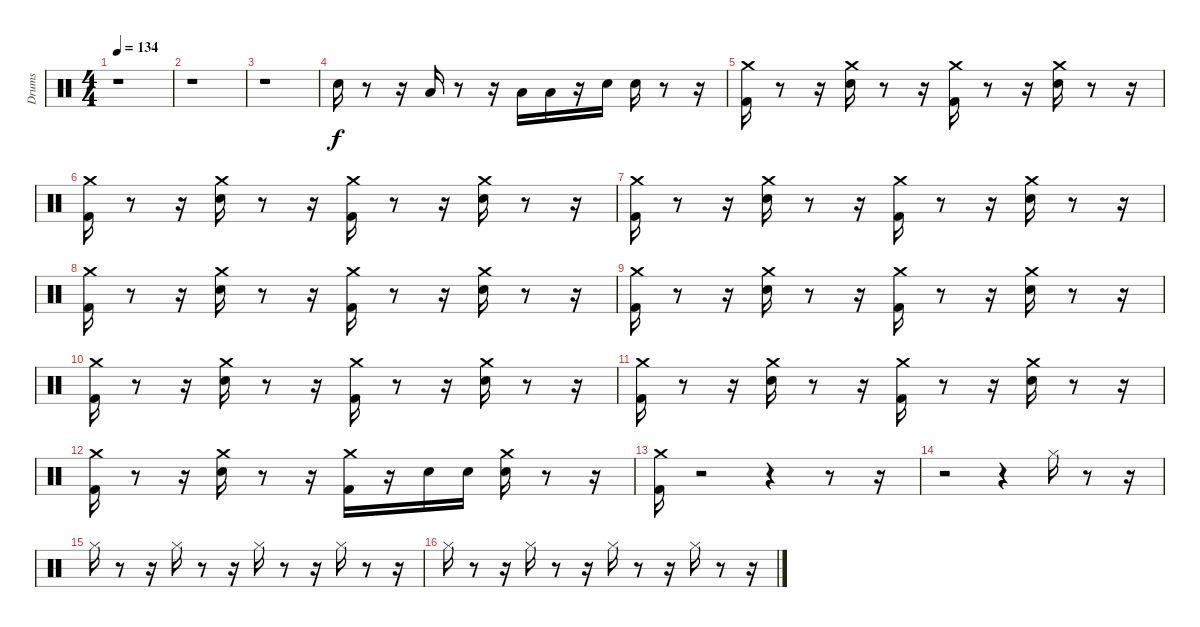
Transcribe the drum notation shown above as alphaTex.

\track ("Drums               " "Drums     ") {instrument percussion}
\staff {score}
\articulation defaults
\ts (4 4)
\tempo 134
\clef neutral
\ks c
r.1{dy f} |
r.1 |
r.1 |
"Snare (hit) 2".16 r.8 r.16 "Low Floor Tom (hit)".16 r.8 r.16 "Low Tom (hit)".16 "Low Tom (hit)".16 r.16 "Snare (hit) 2".16 "Snare (hit) 2".16 r.8 r.16 |
("Kick (hit) 2" "Crash medium (hit)").16 r.8 r.16 ("Snare (hit) 2" "Crash medium (hit)").16 r.8 r.16 ("Kick (hit) 2" "Crash medium (hit)").16 r.8 r.16 ("Snare (hit) 2" "Crash medium (hit)").16 r.8 r.16 |
("Kick (hit) 2" "Crash medium (hit)").16 r.8 r.16 ("Snare (hit) 2" "Crash medium (hit)").16 r.8 r.16 ("Kick (hit) 2" "Crash medium (hit)").16 r.8 r.16 ("Snare (hit) 2" "Crash medium (hit)").16 r.8 r.16 |
("Kick (hit) 2" "Crash medium (hit)").16 r.8 r.16 ("Snare (hit) 2" "Crash medium (hit)").16 r.8 r.16 ("Kick (hit) 2" "Crash medium (hit)").16 r.8 r.16 ("Snare (hit) 2" "Crash medium (hit)").16 r.8 r.16 |
("Kick (hit) 2" "Crash medium (hit)").16 r.8 r.16 ("Snare (hit) 2" "Crash medium (hit)").16 r.8 r.16 ("Kick (hit) 2" "Crash medium (hit)").16 r.8 r.16 ("Snare (hit) 2" "Crash medium (hit)").16 r.8 r.16 |
("Kick (hit) 2" "Crash medium (hit)").16 r.8 r.16 ("Snare (hit) 2" "Crash medium (hit)").16 r.8 r.16 ("Kick (hit) 2" "Crash medium (hit)").16 r.8 r.16 ("Snare (hit) 2" "Crash medium (hit)").16 r.8 r.16 |
("Kick (hit) 2" "Crash medium (hit)").16 r.8 r.16 ("Snare (hit) 2" "Crash medium (hit)").16 r.8 r.16 ("Kick (hit) 2" "Crash medium (hit)").16 r.8 r.16 ("Snare (hit) 2" "Crash medium (hit)").16 r.8 r.16 |
("Kick (hit) 2" "Crash medium (hit)").16 r.8 r.16 ("Snare (hit) 2" "Crash medium (hit)").16 r.8 r.16 ("Kick (hit) 2" "Crash medium (hit)").16 r.8 r.16 ("Snare (hit) 2" "Crash medium (hit)").16 r.8 r.16 |
("Kick (hit) 2" "Crash medium (hit)").16 r.8 r.16 ("Snare (hit) 2" "Crash medium (hit)").16 r.8 r.16 ("Kick (hit) 2" "Crash medium (hit)").16 r.16 "Electric Snare (hit)".16 "Electric Snare (hit)".16 ("Electric Snare (hit)" "Crash medium (hit)").16 r.8 r.16 |
("Kick (hit) 2" "Crash medium (hit)").16 r.2 r.4 r.8 r.16 |
r.2 r.4 "Hi-Hat (closed)".16 r.8 r.16 |
"Hi-Hat (closed)".16 r.8 r.16 "Hi-Hat (closed)".16 r.8 r.16 "Hi-Hat (closed)".16 r.8 r.16 "Hi-Hat (closed)".16 r.8 r.16 |
"Hi-Hat (closed)".16 r.8 r.16 "Hi-Hat (closed)".16 r.8 r.16 "Hi-Hat (closed)".16 r.8 r.16 "Hi-Hat (closed)".16 r.8 r.16
